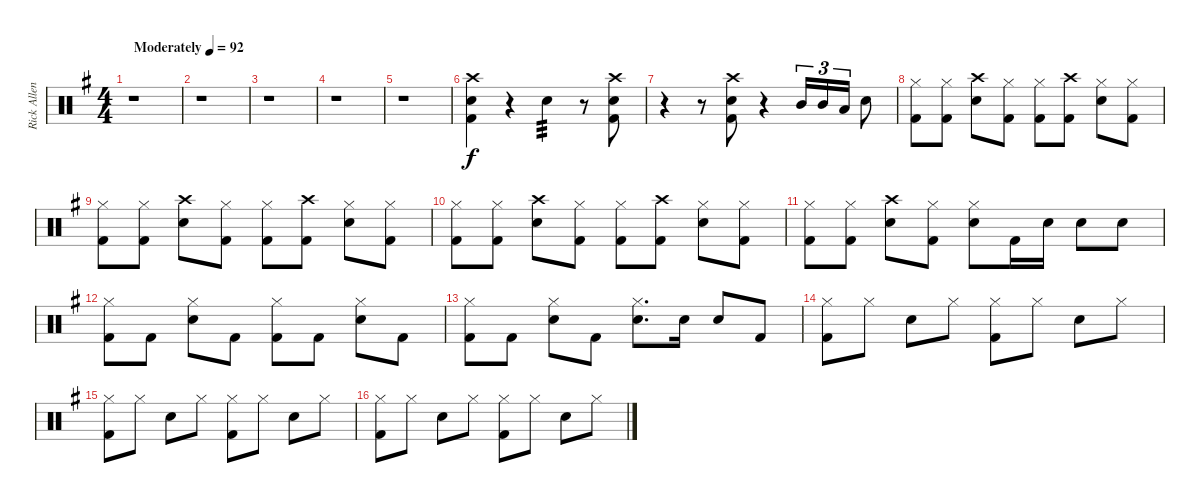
\track ("Rick Allen" "Rick Allen") {instrument percussion}
\staff {score}
\articulation defaults
\ts (4 4)
\tempo (92 "Moderately")
\clef neutral
\ks eminor
r.1{dy f} |
r.1 |
r.1 |
r.1 |
r.1 |
("Crash high (hit)" "Electric Snare (hit)" "Kick (hit) 2").4 r.4 "Electric Snare (hit)".4{tp 3} r.8 ("Crash high (hit)" "Electric Snare (hit)" "Kick (hit) 2").8 |
r.4 r.8 ("Crash high (hit)" "Electric Snare (hit)" "Kick (hit) 2").8 r.4 "Mid Tom (hit)".16{tu (3 2)} "Mid Tom (hit)".16{tu (3 2)} "Low Tom (hit)".16{tu (3 2)} "Electric Snare (hit)".8 |
("Hi-Hat (closed)" "Kick (hit) 2").8 ("Hi-Hat (closed)" "Kick (hit) 2").8 ("Crash high (hit)" "Electric Snare (hit)").8 ("Hi-Hat (closed)" "Kick (hit) 2").8 ("Hi-Hat (closed)" "Kick (hit) 2").8 ("Crash high (hit)" "Kick (hit) 2").8 ("Hi-Hat (closed)" "Electric Snare (hit)").8 ("Hi-Hat (closed)" "Kick (hit) 2").8 |
("Hi-Hat (closed)" "Kick (hit) 2").8 ("Hi-Hat (closed)" "Kick (hit) 2").8 ("Crash high (hit)" "Electric Snare (hit)").8 ("Hi-Hat (closed)" "Kick (hit) 2").8 ("Hi-Hat (closed)" "Kick (hit) 2").8 ("Crash high (hit)" "Kick (hit) 2").8 ("Hi-Hat (closed)" "Electric Snare (hit)").8 ("Hi-Hat (closed)" "Kick (hit) 2").8 |
("Hi-Hat (closed)" "Kick (hit) 2").8 ("Hi-Hat (closed)" "Kick (hit) 2").8 ("Crash high (hit)" "Electric Snare (hit)").8 ("Hi-Hat (closed)" "Kick (hit) 2").8 ("Hi-Hat (closed)" "Kick (hit) 2").8 ("Crash high (hit)" "Kick (hit) 2").8 ("Hi-Hat (closed)" "Electric Snare (hit)").8 ("Hi-Hat (closed)" "Kick (hit) 2").8 |
("Hi-Hat (closed)" "Kick (hit) 2").8 ("Hi-Hat (closed)" "Kick (hit) 2").8 ("Crash high (hit)" "Electric Snare (hit)").8 ("Hi-Hat (closed)" "Kick (hit) 2").8 ("Hi-Hat (closed)" "Electric Snare (hit)").8 "Kick (hit) 2".16 "Electric Snare (hit)".16 "Electric Snare (hit)".8 "Electric Snare (hit)".8 |
("Hi-Hat (closed)" "Kick (hit) 2").8 "Kick (hit) 2".8 ("Hi-Hat (closed)" "Electric Snare (hit)").8 "Kick (hit) 2".8 ("Hi-Hat (closed)" "Kick (hit) 2").8 "Kick (hit) 2".8 ("Hi-Hat (closed)" "Electric Snare (hit)").8 "Kick (hit) 2".8 |
("Hi-Hat (closed)" "Kick (hit) 2").8 "Kick (hit) 2".8 ("Hi-Hat (closed)" "Electric Snare (hit)").8 "Kick (hit) 2".8 ("Hi-Hat (closed)" "Electric Snare (hit)").8{d} "Electric Snare (hit)".16 "Electric Snare (hit)".8 "Kick (hit) 2".8 |
("Hi-Hat (closed)" "Kick (hit) 2").8 "Hi-Hat (closed)".8 "Electric Snare (hit)".8 "Hi-Hat (closed)".8 ("Hi-Hat (closed)" "Kick (hit) 2").8 "Hi-Hat (closed)".8 "Electric Snare (hit)".8 "Hi-Hat (closed)".8 |
("Hi-Hat (closed)" "Kick (hit) 2").8 "Hi-Hat (closed)".8 "Electric Snare (hit)".8 "Hi-Hat (closed)".8 ("Hi-Hat (closed)" "Kick (hit) 2").8 "Hi-Hat (closed)".8 "Electric Snare (hit)".8 "Hi-Hat (closed)".8 |
("Hi-Hat (closed)" "Kick (hit) 2").8 "Hi-Hat (closed)".8 "Electric Snare (hit)".8 "Hi-Hat (closed)".8 ("Hi-Hat (closed)" "Kick (hit) 2").8 "Hi-Hat (closed)".8 "Electric Snare (hit)".8 "Hi-Hat (closed)".8
